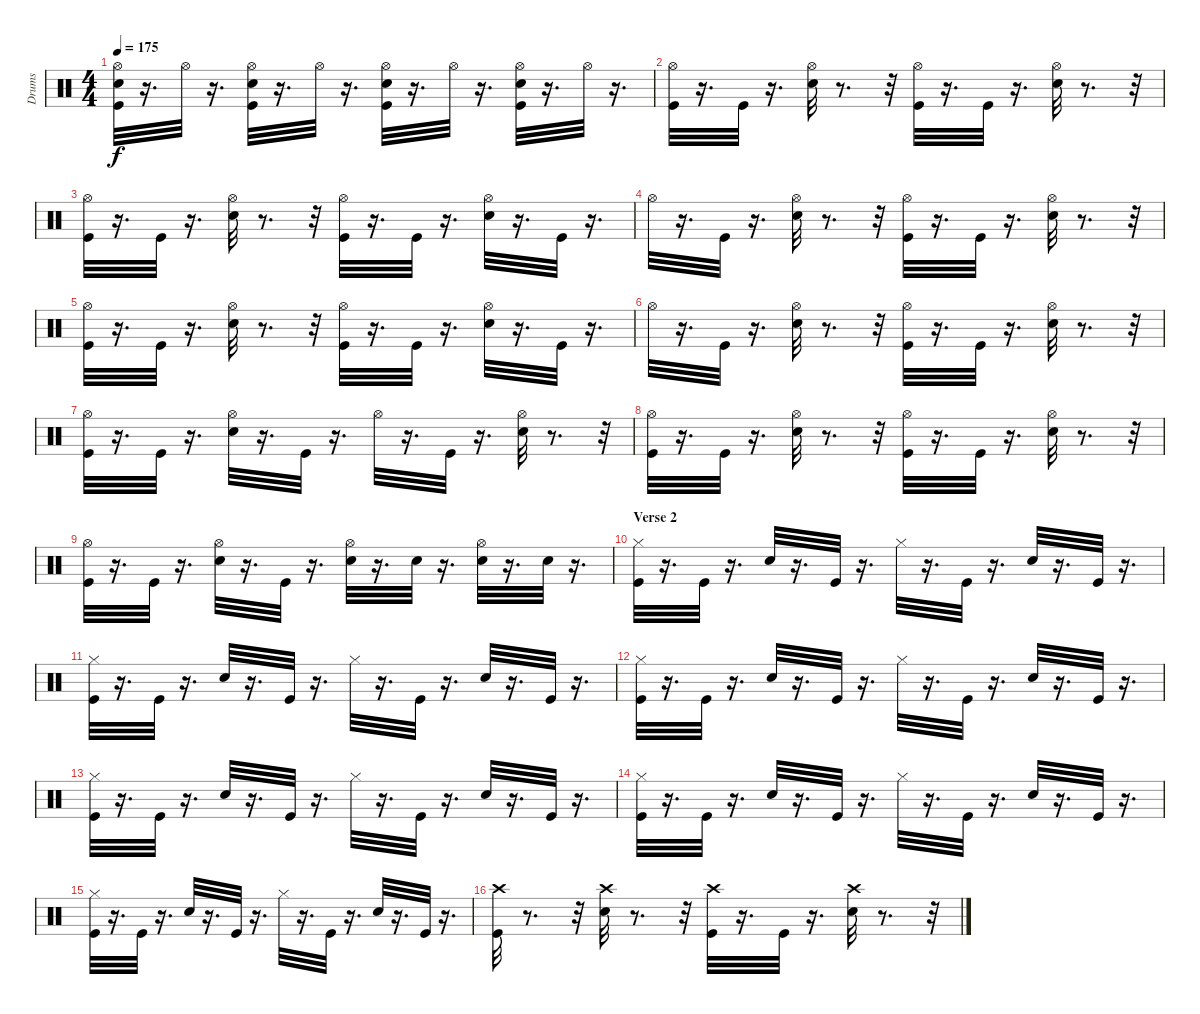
\track ("Drums" "Drums") {instrument percussion}
\staff {score}
\articulation defaults
\ts (4 4)
\tempo 175
\clef neutral
\ks c
("Hi-Hat (open)" "Electric Snare (hit)" "Kick (hit)").32{dy f} r.16{d} "Hi-Hat (open)".32 r.16{d} ("Hi-Hat (open)" "Electric Snare (hit)" "Kick (hit)").32 r.16{d} "Hi-Hat (open)".32 r.16{d} ("Hi-Hat (open)" "Electric Snare (hit)" "Kick (hit)").32 r.16{d} "Hi-Hat (open)".32 r.16{d} ("Hi-Hat (open)" "Electric Snare (hit)" "Kick (hit)").32 r.16{d} "Hi-Hat (open)".32 r.16{d} |
("Hi-Hat (open)" "Kick (hit)").32 r.16{d} "Kick (hit)".32 r.16{d} ("Hi-Hat (open)" "Electric Snare (hit)").32 r.8{d} r.32 ("Hi-Hat (open)" "Kick (hit)").32 r.16{d} "Kick (hit)".32 r.16{d} ("Hi-Hat (open)" "Electric Snare (hit)").32 r.8{d} r.32 |
("Hi-Hat (open)" "Kick (hit)").32 r.16{d} "Kick (hit)".32 r.16{d} ("Hi-Hat (open)" "Electric Snare (hit)").32 r.8{d} r.32 ("Hi-Hat (open)" "Kick (hit)").32 r.16{d} "Kick (hit)".32 r.16{d} ("Electric Snare (hit)" "Hi-Hat (open)").32 r.16{d} "Kick (hit)".32 r.16{d} |
"Hi-Hat (open)".32 r.16{d} "Kick (hit)".32 r.16{d} ("Hi-Hat (open)" "Electric Snare (hit)").32 r.8{d} r.32 ("Hi-Hat (open)" "Kick (hit)").32 r.16{d} "Kick (hit)".32 r.16{d} ("Hi-Hat (open)" "Electric Snare (hit)").32 r.8{d} r.32 |
("Hi-Hat (open)" "Kick (hit)").32 r.16{d} "Kick (hit)".32 r.16{d} ("Hi-Hat (open)" "Electric Snare (hit)").32 r.8{d} r.32 ("Hi-Hat (open)" "Kick (hit)").32 r.16{d} "Kick (hit)".32 r.16{d} ("Hi-Hat (open)" "Electric Snare (hit)").32 r.16{d} "Kick (hit)".32 r.16{d} |
"Hi-Hat (open)".32 r.16{d} "Kick (hit)".32 r.16{d} ("Hi-Hat (open)" "Electric Snare (hit)").32 r.8{d} r.32 ("Hi-Hat (open)" "Kick (hit)").32 r.16{d} "Kick (hit)".32 r.16{d} ("Hi-Hat (open)" "Electric Snare (hit)").32 r.8{d} r.32 |
("Hi-Hat (open)" "Kick (hit)").32 r.16{d} "Kick (hit)".32 r.16{d} ("Hi-Hat (open)" "Electric Snare (hit)").32 r.16{d} "Kick (hit)".32 r.16{d} "Hi-Hat (open)".32 r.16{d} "Kick (hit)".32 r.16{d} ("Hi-Hat (open)" "Electric Snare (hit)").32 r.8{d} r.32 |
("Hi-Hat (open)" "Kick (hit)").32 r.16{d} "Kick (hit)".32 r.16{d} ("Hi-Hat (open)" "Electric Snare (hit)").32 r.8{d} r.32 ("Hi-Hat (open)" "Kick (hit)").32 r.16{d} "Kick (hit)".32 r.16{d} ("Hi-Hat (open)" "Electric Snare (hit)").32 r.8{d} r.32 |
("Hi-Hat (open)" "Kick (hit)").32 r.16{d} "Kick (hit)".32 r.16{d} ("Hi-Hat (open)" "Electric Snare (hit)").32 r.16{d} "Kick (hit)".32 r.16{d} ("Hi-Hat (open)" "Electric Snare (hit)").32 r.16{d} "Electric Snare (hit)".32 r.16{d} ("Hi-Hat (open)" "Electric Snare (hit)").32 r.16{d} "Electric Snare (hit)".32 r.16{d} |
\section ("" "Verse 2")
("Hi-Hat (closed)" "Kick (hit)").32 r.16{d} "Kick (hit)".32 r.16{d} "Electric Snare (hit)".32 r.16{d} "Kick (hit)".32 r.16{d} "Hi-Hat (closed)".32 r.16{d} "Kick (hit)".32 r.16{d} "Electric Snare (hit)".32 r.16{d} "Kick (hit)".32 r.16{d} |
("Hi-Hat (closed)" "Kick (hit)").32 r.16{d} "Kick (hit)".32 r.16{d} "Electric Snare (hit)".32 r.16{d} "Kick (hit)".32 r.16{d} "Hi-Hat (closed)".32 r.16{d} "Kick (hit)".32 r.16{d} "Electric Snare (hit)".32 r.16{d} "Kick (hit)".32 r.16{d} |
("Hi-Hat (closed)" "Kick (hit)").32 r.16{d} "Kick (hit)".32 r.16{d} "Electric Snare (hit)".32 r.16{d} "Kick (hit)".32 r.16{d} "Hi-Hat (closed)".32 r.16{d} "Kick (hit)".32 r.16{d} "Electric Snare (hit)".32 r.16{d} "Kick (hit)".32 r.16{d} |
("Hi-Hat (closed)" "Kick (hit)").32 r.16{d} "Kick (hit)".32 r.16{d} "Electric Snare (hit)".32 r.16{d} "Kick (hit)".32 r.16{d} "Hi-Hat (closed)".32 r.16{d} "Kick (hit)".32 r.16{d} "Electric Snare (hit)".32 r.16{d} "Kick (hit)".32 r.16{d} |
("Hi-Hat (closed)" "Kick (hit)").32 r.16{d} "Kick (hit)".32 r.16{d} "Electric Snare (hit)".32 r.16{d} "Kick (hit)".32 r.16{d} "Hi-Hat (closed)".32 r.16{d} "Kick (hit)".32 r.16{d} "Electric Snare (hit)".32 r.16{d} "Kick (hit)".32 r.16{d} |
("Hi-Hat (closed)" "Kick (hit)").32 r.16{d} "Kick (hit)".32 r.16{d} "Electric Snare (hit)".32 r.16{d} "Kick (hit)".32 r.16{d} "Hi-Hat (closed)".32 r.16{d} "Kick (hit)".32 r.16{d} "Electric Snare (hit)".32 r.16{d} "Kick (hit)".32 r.16{d} |
("Crash high (hit)" "Kick (hit)").32 r.8{d} r.32 ("Crash high (hit)" "Electric Snare (hit)").32 r.8{d} r.32 ("Crash high (hit)" "Kick (hit)").32 r.16{d} "Kick (hit)".32 r.16{d} ("Crash high (hit)" "Electric Snare (hit)").32 r.8{d} r.32
